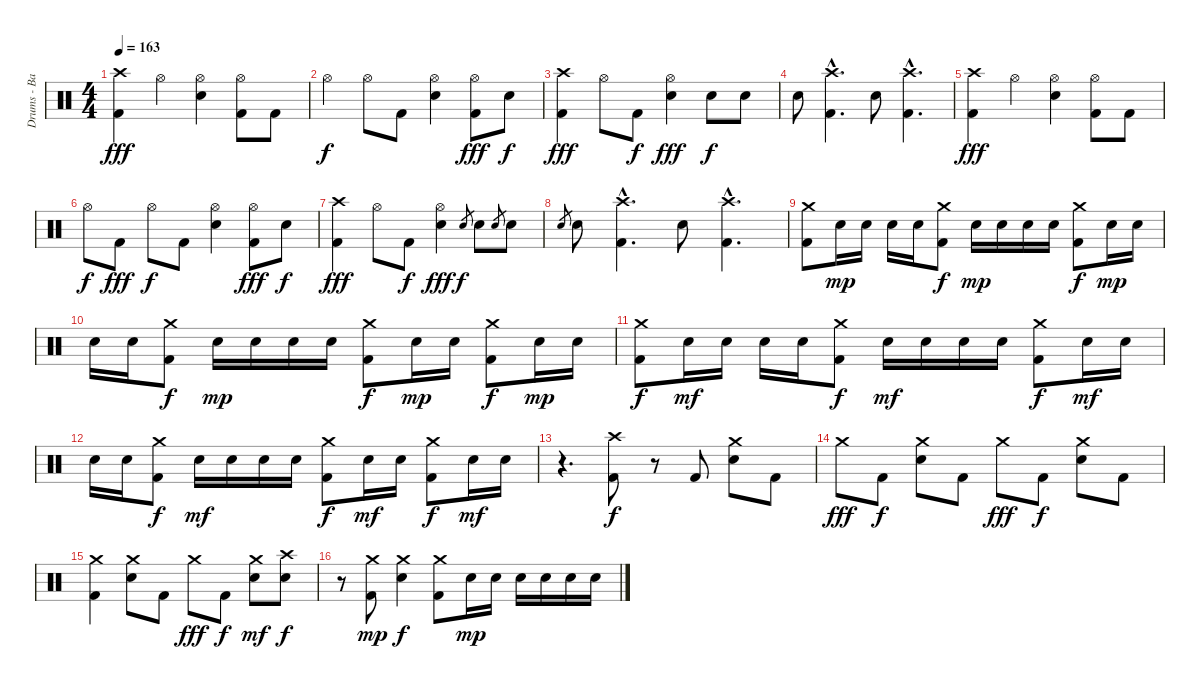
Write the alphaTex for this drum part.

\track ("Drums - Bateria" "Drums - Ba") {instrument percussion}
\staff {score}
\articulation defaults
\ts (4 4)
\tempo 163
\clef neutral
\ks c
("Crash high (hit)" "Kick (hit) 2").4{dy fff} "Hi-Hat (open)".4 ("Hi-Hat (open)" "Electric Snare (hit)").4 ("Hi-Hat (open)" "Kick (hit) 2").8 "Kick (hit) 2".8 |
"Hi-Hat (open)".4{dy f} "Hi-Hat (open)".8 "Kick (hit) 2".8 ("Hi-Hat (open)" "Electric Snare (hit)").4 ("Hi-Hat (open)" "Kick (hit) 2").8{dy fff} "Electric Snare (hit)".8{dy f} |
("Crash high (hit)" "Kick (hit) 2").4{dy fff} "Hi-Hat (open)".8 "Kick (hit) 2".8{dy f} ("Hi-Hat (open)" "Electric Snare (hit)").4{dy fff} "Electric Snare (hit)".8{dy f} "Electric Snare (hit)".8 |
"Electric Snare (hit)".8 ("Crash high (hit)"{hac} "Kick (hit) 2"{hac}).4{d} "Electric Snare (hit)".8 ("Crash high (hit)"{hac} "Kick (hit) 2"{hac}).4{d} |
("Crash high (hit)" "Kick (hit) 2").4{dy fff} "Hi-Hat (open)".4 ("Hi-Hat (open)" "Electric Snare (hit)").4 ("Hi-Hat (open)" "Kick (hit) 2").8 "Kick (hit) 2".8 |
"Hi-Hat (open)".8{dy f} "Kick (hit) 2".8{dy fff} "Hi-Hat (open)".8{dy f} "Kick (hit) 2".8 ("Hi-Hat (open)" "Electric Snare (hit)").4 ("Hi-Hat (open)" "Kick (hit) 2").8{dy fff} "Electric Snare (hit)".8{dy f} |
("Crash high (hit)" "Kick (hit) 2").4{dy fff} "Hi-Hat (open)".8 "Kick (hit) 2".8{dy f} ("Hi-Hat (open)" "Electric Snare (hit)").4{dy fff} "Electric Snare (hit)".8{gr dy f} "Electric Snare (hit)".8 "Electric Snare (hit)".8{gr} "Electric Snare (hit)".8 |
"Electric Snare (hit)".8{gr} "Electric Snare (hit)".8 ("Crash high (hit)"{hac} "Kick (hit) 2"{hac}).4{d} "Electric Snare (hit)".8 ("Crash high (hit)"{hac} "Kick (hit) 2"{hac}).4{d} |
("Crash medium (hit)" "Kick (hit) 2").8 "Electric Snare (hit)".16{dy mp} "Electric Snare (hit)".16 "Electric Snare (hit)".16 "Electric Snare (hit)".16 ("Crash medium (hit)" "Kick (hit) 2").8{dy f} "Electric Snare (hit)".16{dy mp} "Electric Snare (hit)".16 "Electric Snare (hit)".16 "Electric Snare (hit)".16 ("Crash medium (hit)" "Kick (hit) 2").8{dy f} "Electric Snare (hit)".16{dy mp} "Electric Snare (hit)".16 |
"Electric Snare (hit)".16 "Electric Snare (hit)".16 ("Crash medium (hit)" "Kick (hit) 2").8{dy f} "Electric Snare (hit)".16{dy mp} "Electric Snare (hit)".16 "Electric Snare (hit)".16 "Electric Snare (hit)".16 ("Crash medium (hit)" "Kick (hit) 2").8{dy f} "Electric Snare (hit)".16{dy mp} "Electric Snare (hit)".16 ("Crash medium (hit)" "Kick (hit) 2").8{dy f} "Electric Snare (hit)".16{dy mp} "Electric Snare (hit)".16 |
("Crash medium (hit)" "Kick (hit) 2").8{dy f} "Electric Snare (hit)".16{dy mf} "Electric Snare (hit)".16 "Electric Snare (hit)".16 "Electric Snare (hit)".16 ("Crash medium (hit)" "Kick (hit) 2").8{dy f} "Electric Snare (hit)".16{dy mf} "Electric Snare (hit)".16 "Electric Snare (hit)".16 "Electric Snare (hit)".16 ("Crash medium (hit)" "Kick (hit) 2").8{dy f} "Electric Snare (hit)".16{dy mf} "Electric Snare (hit)".16 |
"Electric Snare (hit)".16 "Electric Snare (hit)".16 ("Crash medium (hit)" "Kick (hit) 2").8{dy f} "Electric Snare (hit)".16{dy mf} "Electric Snare (hit)".16 "Electric Snare (hit)".16 "Electric Snare (hit)".16 ("Crash medium (hit)" "Kick (hit) 2").8{dy f} "Electric Snare (hit)".16{dy mf} "Electric Snare (hit)".16 ("Crash medium (hit)" "Kick (hit) 2").8{dy f} "Electric Snare (hit)".16{dy mf} "Electric Snare (hit)".16 |
r.4{d} ("Crash high (hit)" "Kick (hit) 2").8{dy f} r.8 "Kick (hit) 2".8 ("Crash medium (hit)" "Electric Snare (hit)").8 "Kick (hit) 2".8 |
"Crash medium (hit)".8{dy fff} "Kick (hit) 2".8{dy f} ("Crash medium (hit)" "Electric Snare (hit)").8 "Kick (hit) 2".8 "Crash medium (hit)".8{dy fff} "Kick (hit) 2".8{dy f} ("Crash medium (hit)" "Electric Snare (hit)").8 "Kick (hit) 2".8 |
("Crash medium (hit)" "Kick (hit) 2").4 ("Crash medium (hit)" "Electric Snare (hit)").8 "Kick (hit) 2".8 "Crash medium (hit)".8{dy fff} "Kick (hit) 2".8{dy f} ("Crash medium (hit)" "Electric Snare (hit)").8{dy mf} ("Crash high (hit)" "Electric Snare (hit)").8{dy f} |
r.8 ("Crash medium (hit)" "Kick (hit) 2").8{dy mp} ("Crash medium (hit)" "Electric Snare (hit)").4{dy f} ("Crash medium (hit)" "Kick (hit) 2").8 "Electric Snare (hit)".16{dy mp} "Electric Snare (hit)".16 "Electric Snare (hit)".16 "Electric Snare (hit)".16 "Electric Snare (hit)".16 "Electric Snare (hit)".16
